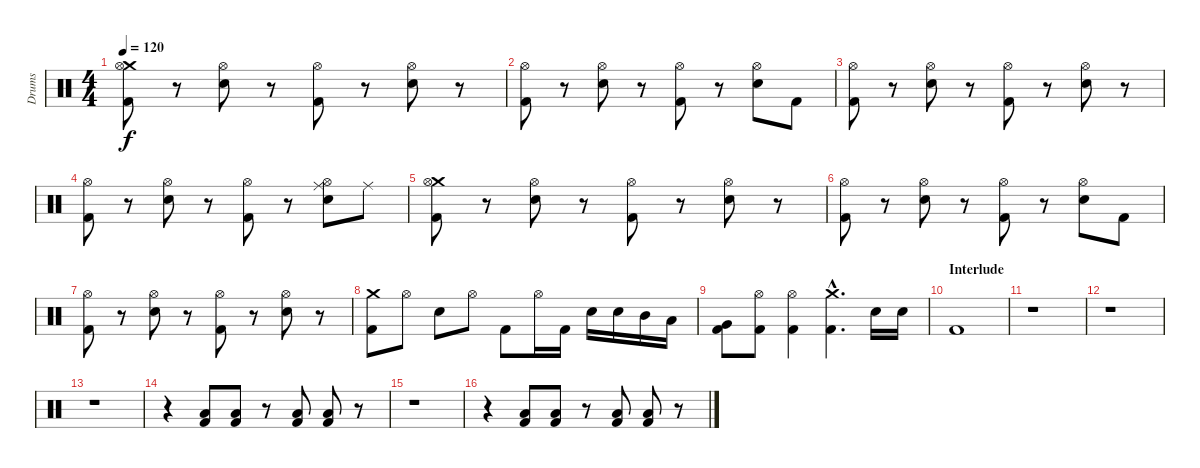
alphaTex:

\track ("Drums" "Drums") {instrument percussion}
\staff {score}
\articulation defaults
\ts (4 4)
\tempo 120
\clef neutral
\ks c
("Crash medium (hit)" "Hi-Hat (open)" "Kick (hit) 2").8{dy f} r.8 ("Hi-Hat (open)" "Electric Snare (hit)").8 r.8 ("Hi-Hat (open)" "Kick (hit) 2").8 r.8 ("Hi-Hat (open)" "Electric Snare (hit)").8 r.8 |
("Hi-Hat (open)" "Kick (hit) 2").8 r.8 ("Hi-Hat (open)" "Electric Snare (hit)").8 r.8 ("Hi-Hat (open)" "Kick (hit) 2").8 r.8 ("Hi-Hat (open)" "Electric Snare (hit)").8 "Kick (hit) 2".8 |
("Hi-Hat (open)" "Kick (hit) 2").8 r.8 ("Hi-Hat (open)" "Electric Snare (hit)").8 r.8 ("Hi-Hat (open)" "Kick (hit) 2").8 r.8 ("Hi-Hat (open)" "Electric Snare (hit)").8 r.8 |
("Hi-Hat (open)" "Kick (hit) 2").8 r.8 ("Hi-Hat (open)" "Electric Snare (hit)").8 r.8 ("Hi-Hat (open)" "Kick (hit) 2").8 r.8 ("Ride (middle)" "Hi-Hat (open)" "Electric Snare (hit)").8 "Ride (middle)".8 |
("Crash medium (hit)" "Hi-Hat (open)" "Kick (hit) 2").8 r.8 ("Hi-Hat (open)" "Electric Snare (hit)").8 r.8 ("Hi-Hat (open)" "Kick (hit) 2").8 r.8 ("Hi-Hat (open)" "Electric Snare (hit)").8 r.8 |
("Hi-Hat (open)" "Kick (hit) 2").8 r.8 ("Hi-Hat (open)" "Electric Snare (hit)").8 r.8 ("Hi-Hat (open)" "Kick (hit) 2").8 r.8 ("Hi-Hat (open)" "Electric Snare (hit)").8 "Kick (hit) 2".8 |
("Hi-Hat (open)" "Kick (hit) 2").8 r.8 ("Hi-Hat (open)" "Electric Snare (hit)").8 r.8 ("Hi-Hat (open)" "Kick (hit) 2").8 r.8 ("Hi-Hat (open)" "Electric Snare (hit)").8 r.8 |
("Crash medium (hit)" "Kick (hit) 2").8 "Hi-Hat (open)".8 "Electric Snare (hit)".8 "Hi-Hat (open)".8 "Kick (hit) 2".8 "Hi-Hat (open)".16 "Kick (hit) 2".16 "Electric Snare (hit)".16 "Electric Snare (hit)".16 "Mid Tom (hit)".16 "Low Tom (hit)".16 |
("Very Low Tom (hit)" "Kick (hit) 2").8 ("Hi-Hat (open)" "Kick (hit) 2").8 ("Hi-Hat (open)" "Kick (hit) 2").4 ("Crash medium (hit)"{hac} "Kick (hit) 2"{hac}).4{d} "Electric Snare (hit)".16 "Electric Snare (hit)".16 |
\section ("" "Interlude")
"Kick (hit) 2".1 |
r.1 |
r.1 |
r.1 |
r.4 ("Low Floor Tom (hit)" "Kick (hit) 2").8 ("Low Floor Tom (hit)" "Kick (hit) 2").8 r.8 ("Low Floor Tom (hit)" "Kick (hit) 2").8 ("Low Floor Tom (hit)" "Kick (hit) 2").8 r.8 |
r.1 |
r.4 ("Low Floor Tom (hit)" "Kick (hit) 2").8 ("Low Floor Tom (hit)" "Kick (hit) 2").8 r.8 ("Low Floor Tom (hit)" "Kick (hit) 2").8 ("Low Floor Tom (hit)" "Kick (hit) 2").8 r.8
